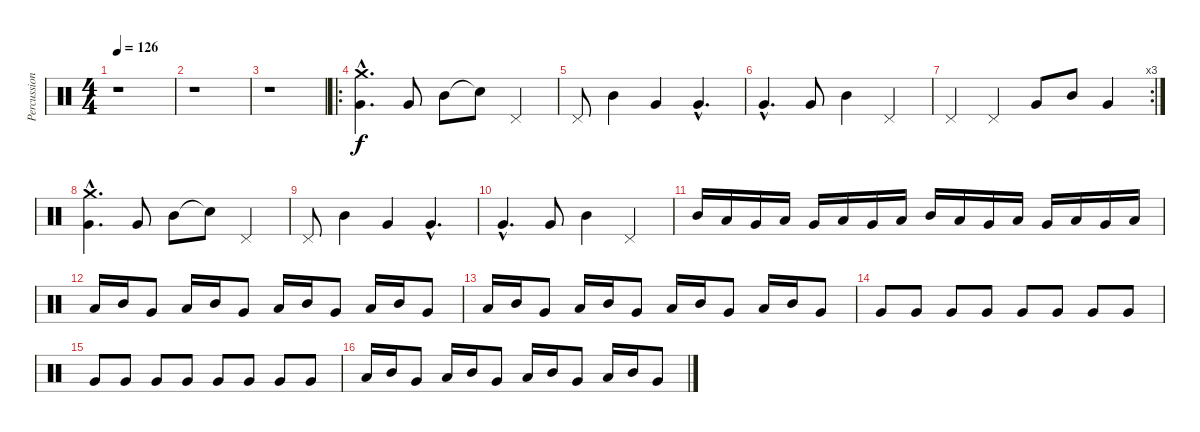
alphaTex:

\track ("Percussion" "Percussion") {instrument percussion}
\staff {score}
\articulation defaults
\ts (4 4)
\tempo 126
\clef neutral
\ks c
r.1{dy f} |
r.1 |
r.1 |
\ro
("Very Low Tom (hit)"{hac} "Crash medium (hit)"{hac}).4{d} "Very Low Tom (hit)".8 "Mid Tom (hit)".8 "Snare (hit)"{t}.8 "Pedal Hi-Hat (hit)".4 |
"Pedal Hi-Hat (hit)".8 "Mid Tom (hit)".4 "Very Low Tom (hit)".4 "Very Low Tom (hit)"{hac}.4{d} |
"Very Low Tom (hit)"{hac}.4{d} "Very Low Tom (hit)".8 "Mid Tom (hit)".4 "Pedal Hi-Hat (hit)".4 |
\rc 3 "Pedal Hi-Hat (hit)".4 "Pedal Hi-Hat (hit)".4 "Very Low Tom (hit)".8 "Mid Tom (hit)".8 "Very Low Tom (hit)".4
|
("Very Low Tom (hit)"{hac} "Crash medium (hit)"{hac}).4{d} "Very Low Tom (hit)".8 "Mid Tom (hit)".8 "Snare (hit)"{t}.8 "Pedal Hi-Hat (hit)".4 |
"Pedal Hi-Hat (hit)".8 "Mid Tom (hit)".4 "Very Low Tom (hit)".4 "Very Low Tom (hit)"{hac}.4{d} |
"Very Low Tom (hit)"{hac}.4{d} "Very Low Tom (hit)".8 "Mid Tom (hit)".4 "Pedal Hi-Hat (hit)".4 |
"Mid Tom (hit)".16 "Low Tom (hit)".16 "Very Low Tom (hit)".16 "Low Floor Tom (hit)".16 "Very Low Tom (hit)".16 "Low Floor Tom (hit)".16 "Very Low Tom (hit)".16 "Low Floor Tom (hit)".16 "Mid Tom (hit)".16 "Low Tom (hit)".16 "Very Low Tom (hit)".16 "Low Floor Tom (hit)".16 "Very Low Tom (hit)".16 "Low Floor Tom (hit)".16 "Very Low Tom (hit)".16 "Low Floor Tom (hit)".16 |
"Low Tom (hit)".16 "Mid Tom (hit)".16 "Very Low Tom (hit)".8 "Low Tom (hit)".16 "Mid Tom (hit)".16 "Very Low Tom (hit)".8 "Low Tom (hit)".16 "Mid Tom (hit)".16 "Very Low Tom (hit)".8 "Low Tom (hit)".16 "Mid Tom (hit)".16 "Very Low Tom (hit)".8 |
"Low Tom (hit)".16 "Mid Tom (hit)".16 "Very Low Tom (hit)".8 "Low Tom (hit)".16 "Mid Tom (hit)".16 "Very Low Tom (hit)".8 "Low Tom (hit)".16 "Mid Tom (hit)".16 "Very Low Tom (hit)".8 "Low Tom (hit)".16 "Mid Tom (hit)".16 "Very Low Tom (hit)".8 |
"Very Low Tom (hit)".8 "Very Low Tom (hit)".8 "Very Low Tom (hit)".8 "Very Low Tom (hit)".8 "Very Low Tom (hit)".8 "Very Low Tom (hit)".8 "Very Low Tom (hit)".8 "Very Low Tom (hit)".8 |
"Very Low Tom (hit)".8 "Very Low Tom (hit)".8 "Very Low Tom (hit)".8 "Very Low Tom (hit)".8 "Very Low Tom (hit)".8 "Very Low Tom (hit)".8 "Very Low Tom (hit)".8 "Very Low Tom (hit)".8 |
"Low Tom (hit)".16 "Mid Tom (hit)".16 "Very Low Tom (hit)".8 "Low Tom (hit)".16 "Mid Tom (hit)".16 "Very Low Tom (hit)".8 "Low Tom (hit)".16 "Mid Tom (hit)".16 "Very Low Tom (hit)".8 "Low Tom (hit)".16 "Mid Tom (hit)".16 "Very Low Tom (hit)".8
